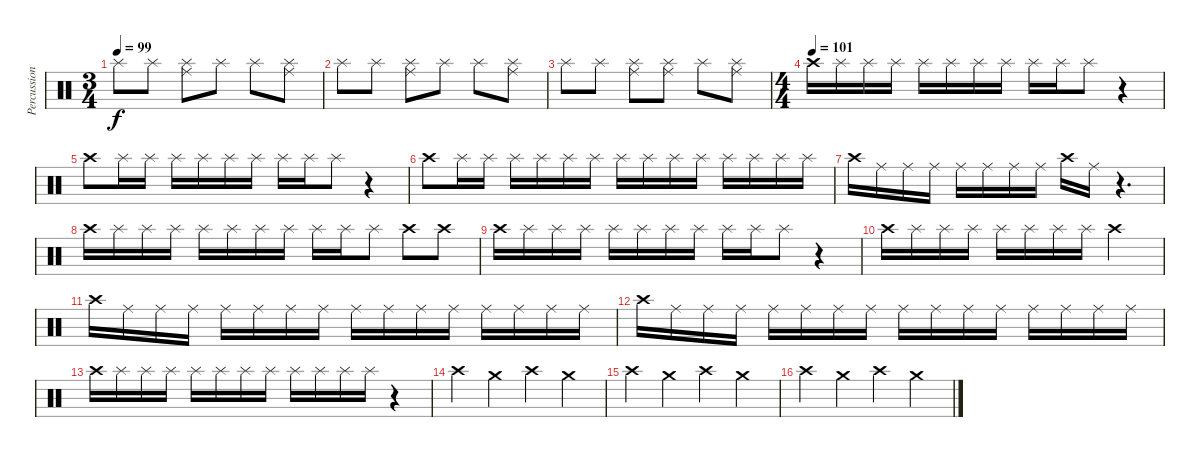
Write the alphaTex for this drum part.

\track ("Percussion2" "Percussion") {instrument percussion}
\staff {score}
\articulation defaults
\ts (3 4)
\tempo 99
\clef neutral
\ks c "Splash (hit)".8{dy f} "Splash (hit)".8
("Ride (middle)" "Splash (hit)").8 "Splash (hit)".8 "Splash (hit)".8 ("Ride (middle)" "Splash (hit)").8 |
"Splash (hit)".8 "Splash (hit)".8 ("Ride (middle)" "Splash (hit)").8 "Splash (hit)".8 "Splash (hit)".8 ("Ride (middle)" "Splash (hit)").8 |
"Splash (hit)".8 "Splash (hit)".8 ("Ride (middle)" "Splash (hit)").8 ("Ride (middle)" "Splash (hit)").8 "Splash (hit)".8 ("Ride (middle)" "Splash (hit)").8 |
\ts (4 4)
\tempo (101)
"Crash high (hit)".16 "Splash (hit)".16 "Splash (hit)".16 "Splash (hit)".16 "Splash (hit)".16 "Splash (hit)".16 "Splash (hit)".16 "Splash (hit)".16 "Splash (hit)".16 "Splash (hit)".16 "Splash (hit)".8 r.4 |
"Crash high (hit)".8 "Splash (hit)".16 "Splash (hit)".16 "Splash (hit)".16 "Splash (hit)".16 "Splash (hit)".16 "Splash (hit)".16 "Splash (hit)".16 "Splash (hit)".16 "Splash (hit)".8 r.4 |
"Crash high (hit)".8 "Splash (hit)".16 "Splash (hit)".16 "Splash (hit)".16 "Splash (hit)".16 "Splash (hit)".16 "Splash (hit)".16 "Splash (hit)".16 "Splash (hit)".16 "Splash (hit)".16 "Splash (hit)".16 "Splash (hit)".16 "Splash (hit)".16 "Splash (hit)".16 "Splash (hit)".16 |
"Crash high (hit)".16 "Ride (middle)".16 "Ride (middle)".16 "Ride (middle)".16 "Ride (middle)".16 "Ride (middle)".16 "Ride (middle)".16 "Ride (middle)".16 "Crash high (hit)".16 "Ride (middle)".16 r.4{d} |
"Crash high (hit)".16 "Splash (hit)".16 "Splash (hit)".16 "Splash (hit)".16 "Splash (hit)".16 "Splash (hit)".16 "Splash (hit)".16 "Splash (hit)".16 "Splash (hit)".16 "Splash (hit)".16 "Splash (hit)".8 "Crash high (hit)".8 "Crash high (hit)".8 |
"Crash high (hit)".16 "Splash (hit)".16 "Splash (hit)".16 "Splash (hit)".16 "Splash (hit)".16 "Splash (hit)".16 "Splash (hit)".16 "Splash (hit)".16 "Splash (hit)".16 "Splash (hit)".16 "Splash (hit)".8 r.4 |
"Crash high (hit)".16 "Splash (hit)".16 "Splash (hit)".16 "Splash (hit)".16 "Splash (hit)".16 "Splash (hit)".16 "Splash (hit)".16 "Splash (hit)".16 "Crash high (hit)".2 |
"Crash high (hit)".16 "Ride (middle)".16 "Ride (middle)".16 "Ride (middle)".16 "Ride (middle)".16 "Ride (middle)".16 "Ride (middle)".16 "Ride (middle)".16 "Ride (middle)".16 "Ride (middle)".16 "Ride (middle)".16 "Ride (middle)".16 "Ride (middle)".16 "Ride (middle)".16 "Ride (middle)".16 "Ride (middle)".16 |
"Crash high (hit)".16 "Ride (middle)".16 "Ride (middle)".16 "Ride (middle)".16 "Ride (middle)".16 "Ride (middle)".16 "Ride (middle)".16 "Ride (middle)".16 "Ride (middle)".16 "Ride (middle)".16 "Ride (middle)".16 "Ride (middle)".16 "Ride (middle)".16 "Ride (middle)".16 "Ride (middle)".16 "Ride (middle)".16 |
"Crash high (hit)".16 "Splash (hit)".16 "Splash (hit)".16 "Splash (hit)".16 "Splash (hit)".16 "Splash (hit)".16 "Splash (hit)".16 "Splash (hit)".16 "Splash (hit)".16 "Splash (hit)".16 "Splash (hit)".16 "Splash (hit)".16 r.4 |
"Crash high (hit)".4 "Crash medium (hit)".4 "Crash high (hit)".4 "Crash medium (hit)".4 |
"Crash high (hit)".4 "Crash medium (hit)".4 "Crash high (hit)".4 "Crash medium (hit)".4 |
"Crash high (hit)".4 "Crash medium (hit)".4 "Crash high (hit)".4 "Crash medium (hit)".4
